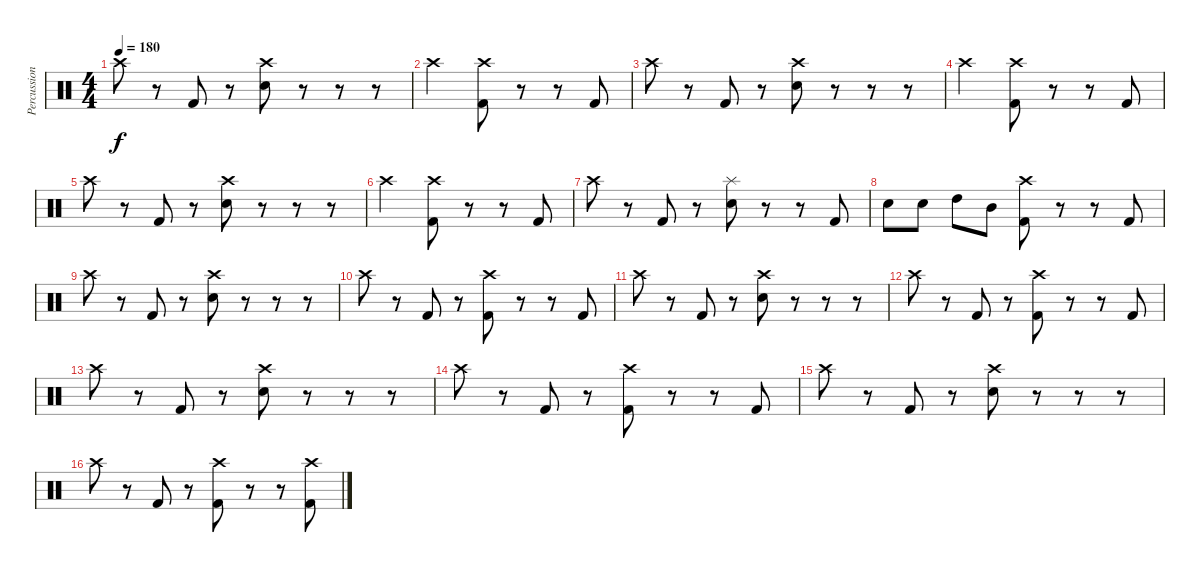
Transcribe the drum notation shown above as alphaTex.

\track ("Percussion" "Percussion") {instrument percussion}
\staff {score}
\articulation defaults
\ts (4 4)
\tempo 180
\clef neutral
\ks c "Crash high (hit)".8{dy f}
r.8 "Kick (hit) 2".8 r.8 ("Crash high (hit)" "Snare (hit) 2").8 r.8 r.8 r.8 |
"Crash high (hit)".2 ("Crash high (hit)" "Kick (hit) 2").8 r.8 r.8 "Kick (hit) 2".8 |
"Crash high (hit)".8 r.8 "Kick (hit) 2".8 r.8 ("Crash high (hit)" "Snare (hit) 2").8 r.8 r.8 r.8 |
"Crash high (hit)".2 ("Crash high (hit)" "Kick (hit) 2").8 r.8 r.8 "Kick (hit) 2".8 |
"Crash high (hit)".8 r.8 "Kick (hit) 2".8 r.8 ("Crash high (hit)" "Snare (hit) 2").8 r.8 r.8 r.8 |
"Crash high (hit)".2 ("Crash high (hit)" "Kick (hit) 2").8 r.8 r.8 "Kick (hit) 2".8 |
"Crash high (hit)".8 r.8 "Kick (hit) 2".8 r.8 ("Splash (hit)" "Snare (hit) 2").8 r.8 r.8 "Kick (hit) 2".8 |
"Snare (hit) 2".8 "Snare (hit) 2".8 "High Tom (hit)".8 "Mid Tom (hit)".8 ("Crash high (hit)" "Kick (hit) 2").8 r.8 r.8 "Kick (hit) 2".8 |
"Crash high (hit)".8 r.8 "Kick (hit) 2".8 r.8 ("Crash high (hit)" "Snare (hit) 2").8 r.8 r.8 r.8 |
"Crash high (hit)".8 r.8 "Kick (hit) 2".8 r.8 ("Crash high (hit)" "Kick (hit) 2").8 r.8 r.8 "Kick (hit) 2".8 |
"Crash high (hit)".8 r.8 "Kick (hit) 2".8 r.8 ("Crash high (hit)" "Snare (hit) 2").8 r.8 r.8 r.8 |
"Crash high (hit)".8 r.8 "Kick (hit) 2".8 r.8 ("Crash high (hit)" "Kick (hit) 2").8 r.8 r.8 "Kick (hit) 2".8 |
"Crash high (hit)".8 r.8 "Kick (hit) 2".8 r.8 ("Crash high (hit)" "Snare (hit) 2").8 r.8 r.8 r.8 |
"Crash high (hit)".8 r.8 "Kick (hit) 2".8 r.8 ("Crash high (hit)" "Kick (hit) 2").8 r.8 r.8 "Kick (hit) 2".8 |
"Crash high (hit)".8 r.8 "Kick (hit) 2".8 r.8 ("Crash high (hit)" "Snare (hit) 2").8 r.8 r.8 r.8 |
"Crash high (hit)".8 r.8 "Kick (hit) 2".8 r.8 ("Crash high (hit)" "Kick (hit) 2").8 r.8 r.8 ("Crash high (hit)" "Kick (hit) 2").8
